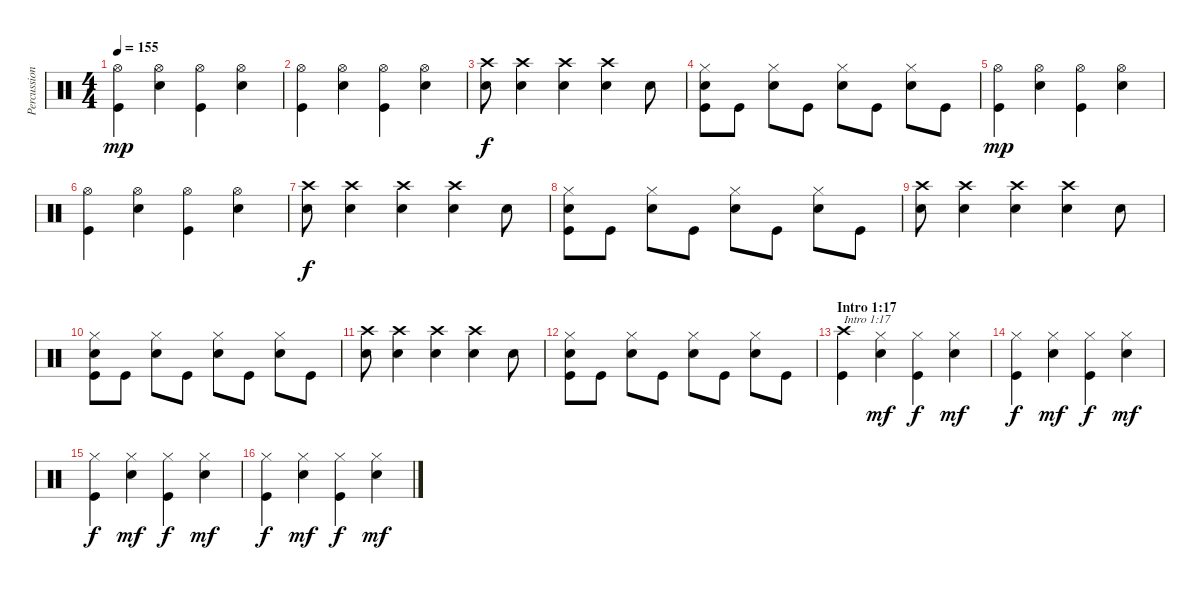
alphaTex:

\track ("Percussion" "Percussion") {instrument percussion}
\staff {score}
\articulation defaults
\ts (4 4)
\tempo 155
\clef neutral
\ks c
("Kick (hit)" "Hi-Hat (open)").4{dy mp} ("Electric Snare (hit)" "Hi-Hat (open)").4 ("Kick (hit)" "Hi-Hat (open)").4 ("Electric Snare (hit)" "Hi-Hat (open)").4 |
("Kick (hit)" "Hi-Hat (open)").4 ("Electric Snare (hit)" "Hi-Hat (open)").4 ("Kick (hit)" "Hi-Hat (open)").4 ("Electric Snare (hit)" "Hi-Hat (open)").4 |
("Electric Snare (hit)" "Crash high (hit)").8{dy f} ("Electric Snare (hit)" "Crash high (hit)").4 ("Electric Snare (hit)" "Crash high (hit)").4 ("Electric Snare (hit)" "Crash high (hit)").4 "Electric Snare (hit)".8 |
("Kick (hit)" "Electric Snare (hit)" "Hi-Hat (closed)").8 "Kick (hit)".8 ("Electric Snare (hit)" "Hi-Hat (closed)").8 "Kick (hit)".8 ("Electric Snare (hit)" "Hi-Hat (closed)").8 "Kick (hit)".8 ("Electric Snare (hit)" "Hi-Hat (closed)").8 "Kick (hit)".8 |
("Kick (hit)" "Hi-Hat (open)").4{dy mp} ("Electric Snare (hit)" "Hi-Hat (open)").4 ("Kick (hit)" "Hi-Hat (open)").4 ("Electric Snare (hit)" "Hi-Hat (open)").4 |
("Kick (hit)" "Hi-Hat (open)").4 ("Electric Snare (hit)" "Hi-Hat (open)").4 ("Kick (hit)" "Hi-Hat (open)").4 ("Electric Snare (hit)" "Hi-Hat (open)").4 |
("Electric Snare (hit)" "Crash high (hit)").8{dy f} ("Electric Snare (hit)" "Crash high (hit)").4 ("Electric Snare (hit)" "Crash high (hit)").4 ("Electric Snare (hit)" "Crash high (hit)").4 "Electric Snare (hit)".8 |
("Kick (hit)" "Electric Snare (hit)" "Hi-Hat (closed)").8 "Kick (hit)".8 ("Electric Snare (hit)" "Hi-Hat (closed)").8 "Kick (hit)".8 ("Electric Snare (hit)" "Hi-Hat (closed)").8 "Kick (hit)".8 ("Electric Snare (hit)" "Hi-Hat (closed)").8 "Kick (hit)".8 |
("Electric Snare (hit)" "Crash high (hit)").8 ("Electric Snare (hit)" "Crash high (hit)").4 ("Electric Snare (hit)" "Crash high (hit)").4 ("Electric Snare (hit)" "Crash high (hit)").4 "Electric Snare (hit)".8 |
("Kick (hit)" "Electric Snare (hit)" "Hi-Hat (closed)").8 "Kick (hit)".8 ("Electric Snare (hit)" "Hi-Hat (closed)").8 "Kick (hit)".8 ("Electric Snare (hit)" "Hi-Hat (closed)").8 "Kick (hit)".8 ("Electric Snare (hit)" "Hi-Hat (closed)").8 "Kick (hit)".8 |
("Electric Snare (hit)" "Crash high (hit)").8 ("Electric Snare (hit)" "Crash high (hit)").4 ("Electric Snare (hit)" "Crash high (hit)").4 ("Electric Snare (hit)" "Crash high (hit)").4 "Electric Snare (hit)".8 |
("Kick (hit)" "Electric Snare (hit)" "Hi-Hat (closed)").8 "Kick (hit)".8 ("Electric Snare (hit)" "Hi-Hat (closed)").8 "Kick (hit)".8 ("Electric Snare (hit)" "Hi-Hat (closed)").8 "Kick (hit)".8 ("Electric Snare (hit)" "Hi-Hat (closed)").8 "Kick (hit)".8 |
\section ("" "Intro 1:17")
("Kick (hit)" "Crash high (hit)").4{txt "Intro 1:17"} ("Electric Snare (hit)" "Hi-Hat (closed)").4{dy mf} ("Kick (hit)" "Hi-Hat (closed)").4{dy f} ("Electric Snare (hit)" "Hi-Hat (closed)").4{dy mf} |
("Kick (hit)" "Hi-Hat (closed)").4{dy f} ("Electric Snare (hit)" "Hi-Hat (closed)").4{dy mf} ("Kick (hit)" "Hi-Hat (closed)").4{dy f} ("Electric Snare (hit)" "Hi-Hat (closed)").4{dy mf} |
("Kick (hit)" "Hi-Hat (closed)").4{dy f} ("Electric Snare (hit)" "Hi-Hat (closed)").4{dy mf} ("Kick (hit)" "Hi-Hat (closed)").4{dy f} ("Electric Snare (hit)" "Hi-Hat (closed)").4{dy mf} |
("Kick (hit)" "Hi-Hat (closed)").4{dy f} ("Electric Snare (hit)" "Hi-Hat (closed)").4{dy mf} ("Kick (hit)" "Hi-Hat (closed)").4{dy f} ("Electric Snare (hit)" "Hi-Hat (closed)").4{dy mf}
